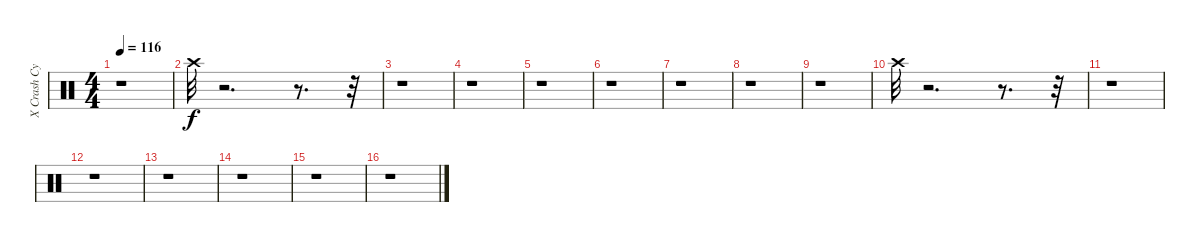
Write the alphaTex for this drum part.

\track ("X Crash Cymbal      " "X Crash Cy") {instrument percussion}
\staff {score}
\articulation defaults
\ts (4 4)
\tempo 116
\clef neutral
\ks c
r.1{dy f} |
"Crash high (hit)".32 r.2{d} r.8{d} r.32 |
r.1 |
r.1 |
r.1 |
r.1 |
r.1 |
r.1 |
r.1 |
"Crash high (hit)".32 r.2{d} r.8{d} r.32 |
r.1 |
r.1 |
r.1 |
r.1 |
r.1 |
r.1
